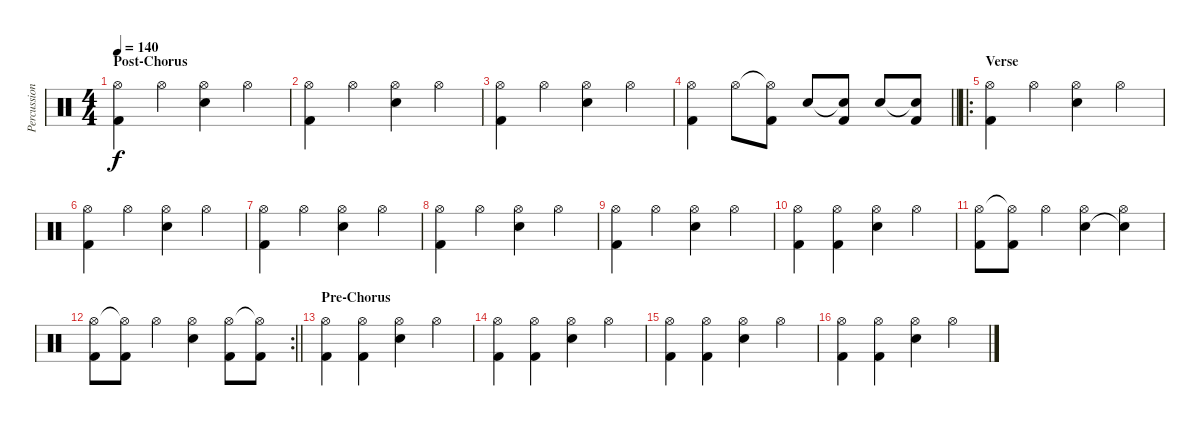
\track ("Percussion" "Percussion") {instrument percussion}
\staff {score}
\articulation defaults
\ts (4 4)
\section ("" "Post-Chorus")
\tempo 140
\clef neutral
\ks c
("Hi-Hat (open)" "Kick (hit) 2").4{dy f} "Hi-Hat (open)".4 ("Hi-Hat (open)" "Snare (hit) 2").4 "Hi-Hat (open)".4 |
("Hi-Hat (open)" "Kick (hit) 2").4 "Hi-Hat (open)".4 ("Hi-Hat (open)" "Snare (hit) 2").4 "Hi-Hat (open)".4 |
("Hi-Hat (open)" "Kick (hit) 2").4 "Hi-Hat (open)".4 ("Hi-Hat (open)" "Snare (hit) 2").4 "Hi-Hat (open)".4 |
\barLineRight lightlight
("Hi-Hat (open)" "Kick (hit) 2").4 "Hi-Hat (open)".8 ("Hi-Hat (open)"{t} "Kick (hit) 2").8 "Snare (hit) 2".8 ("Snare (hit) 2"{t} "Kick (hit) 2").8 "Snare (hit) 2".8 ("Snare (hit) 2"{t} "Kick (hit) 2").8 |
\ro
\section ("" "Verse")
("Hi-Hat (open)" "Kick (hit) 2").4 "Hi-Hat (open)".4 ("Hi-Hat (open)" "Snare (hit) 2").4 "Hi-Hat (open)".4 |
("Hi-Hat (open)" "Kick (hit) 2").4 "Hi-Hat (open)".4 ("Hi-Hat (open)" "Snare (hit) 2").4 "Hi-Hat (open)".4 |
("Hi-Hat (open)" "Kick (hit) 2").4 "Hi-Hat (open)".4 ("Hi-Hat (open)" "Snare (hit) 2").4 "Hi-Hat (open)".4 |
("Hi-Hat (open)" "Kick (hit) 2").4 "Hi-Hat (open)".4 ("Hi-Hat (open)" "Snare (hit) 2").4 "Hi-Hat (open)".4 |
("Hi-Hat (open)" "Kick (hit) 2").4 "Hi-Hat (open)".4 ("Hi-Hat (open)" "Snare (hit) 2").4 "Hi-Hat (open)".4 |
("Hi-Hat (open)" "Kick (hit) 2").4 ("Hi-Hat (open)" "Kick (hit) 2").4 ("Hi-Hat (open)" "Snare (hit) 2").4 "Hi-Hat (open)".4 |
("Hi-Hat (open)" "Kick (hit) 2").8 ("Hi-Hat (open)"{t} "Kick (hit) 2").8 "Hi-Hat (open)".4 ("Hi-Hat (open)" "Snare (hit) 2").4 ("Hi-Hat (open)" "Snare (hit) 2"{t}).4 |
\rc 2
\barLineRight lightlight
("Hi-Hat (open)" "Kick (hit) 2").8 ("Hi-Hat (open)"{t} "Kick (hit) 2").8 "Hi-Hat (open)".4 ("Hi-Hat (open)" "Snare (hit) 2").4 ("Hi-Hat (open)" "Kick (hit) 2").8 ("Hi-Hat (open)"{t} "Kick (hit) 2").8 |
\section ("" "Pre-Chorus")
("Hi-Hat (open)" "Kick (hit) 2").4 ("Hi-Hat (open)" "Kick (hit) 2").4 ("Hi-Hat (open)" "Snare (hit) 2").4 "Hi-Hat (open)".4 |
("Hi-Hat (open)" "Kick (hit) 2").4 ("Hi-Hat (open)" "Kick (hit) 2").4 ("Hi-Hat (open)" "Snare (hit) 2").4 "Hi-Hat (open)".4 |
("Hi-Hat (open)" "Kick (hit) 2").4 ("Hi-Hat (open)" "Kick (hit) 2").4 ("Hi-Hat (open)" "Snare (hit) 2").4 "Hi-Hat (open)".4 |
("Hi-Hat (open)" "Kick (hit) 2").4 ("Hi-Hat (open)" "Kick (hit) 2").4 ("Hi-Hat (open)" "Snare (hit) 2").4 "Hi-Hat (open)".4
